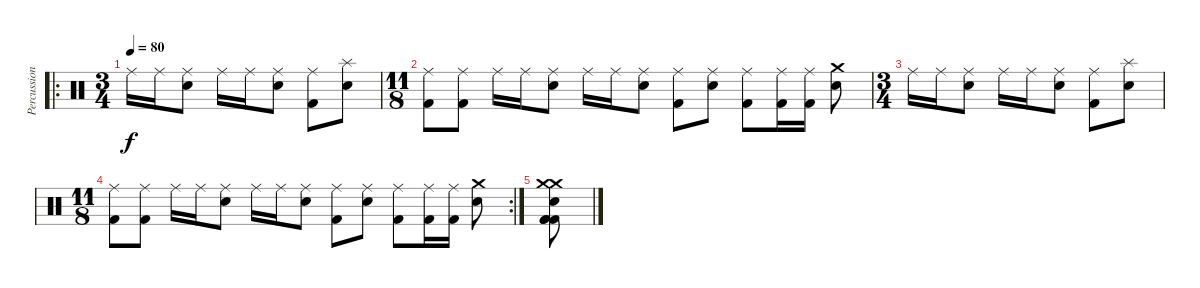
\track ("Percussion" "Percussion") {instrument percussion}
\staff {score}
\articulation defaults
\ro
\ts (3 4)
\tempo 80
\clef neutral
\ks c "Ride (middle)".16{dy f} "Ride (middle)".16
("Ride (middle)" "Electric Snare (hit)").8 "Ride (middle)".16 "Ride (middle)".16 ("Ride (middle)" "Electric Snare (hit)").8 ("Ride (middle)" "Kick (hit) 2").8 ("Splash (hit)" "Electric Snare (hit)").8 |
\ts (11 8)
("Ride (middle)" "Kick (hit) 2").8 ("Ride (middle)" "Kick (hit) 2").8 "Ride (middle)".16 "Ride (middle)".16 ("Ride (middle)" "Electric Snare (hit)").8 "Ride (middle)".16 "Ride (middle)".16 ("Ride (middle)" "Electric Snare (hit)").8 ("Ride (middle)" "Kick (hit) 2").8 ("Ride (middle)" "Electric Snare (hit)").8 ("Ride (middle)" "Kick (hit) 2").8 ("Ride (middle)" "Kick (hit) 2").16 ("Ride (middle)" "Kick (hit) 2").16 ("Crash medium (hit)" "Electric Snare (hit)").8 |
\ts (3 4)
"Ride (middle)".16 "Ride (middle)".16 ("Ride (middle)" "Electric Snare (hit)").8 "Ride (middle)".16 "Ride (middle)".16 ("Ride (middle)" "Electric Snare (hit)").8 ("Ride (middle)" "Kick (hit) 2").8 ("Splash (hit)" "Electric Snare (hit)").8 |
\rc 2
\ts (11 8)
("Ride (middle)" "Kick (hit) 2").8 ("Ride (middle)" "Kick (hit) 2").8 "Ride (middle)".16 "Ride (middle)".16 ("Ride (middle)" "Electric Snare (hit)").8 "Ride (middle)".16 "Ride (middle)".16 ("Ride (middle)" "Electric Snare (hit)").8 ("Ride (middle)" "Kick (hit) 2").8 ("Ride (middle)" "Electric Snare (hit)").8 ("Ride (middle)" "Kick (hit) 2").8 ("Ride (middle)" "Kick (hit) 2").16 ("Ride (middle)" "Kick (hit) 2").16 ("Crash medium (hit)" "Electric Snare (hit)").8 |
("Crash medium (hit)" "Crash medium (hit)" "Electric Snare (hit)" "Kick (hit) 2" "Kick (hit) 2" "Kick (hit) 2").8
